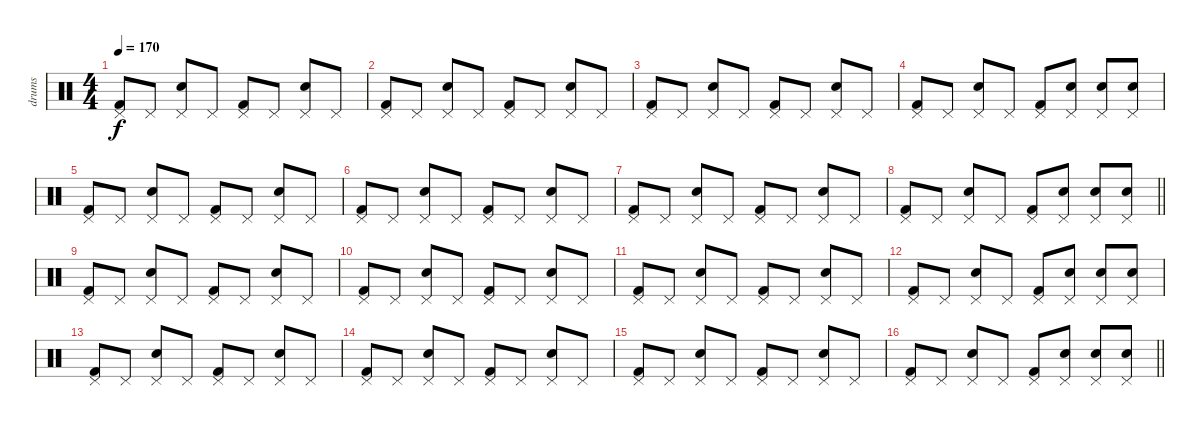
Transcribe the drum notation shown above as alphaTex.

\track ("drums" "drums") {instrument percussion}
\staff {score}
\articulation defaults
\ts (4 4)
\tempo 170
\clef neutral
\ks c
("Kick (hit) 2" "Pedal Hi-Hat (hit)").8{dy f} "Pedal Hi-Hat (hit)".8 ("Electric Snare (hit)" "Pedal Hi-Hat (hit)").8 "Pedal Hi-Hat (hit)".8 ("Kick (hit) 2" "Pedal Hi-Hat (hit)").8 "Pedal Hi-Hat (hit)".8 ("Electric Snare (hit)" "Pedal Hi-Hat (hit)").8 "Pedal Hi-Hat (hit)".8 |
("Kick (hit) 2" "Pedal Hi-Hat (hit)").8 "Pedal Hi-Hat (hit)".8 ("Electric Snare (hit)" "Pedal Hi-Hat (hit)").8 "Pedal Hi-Hat (hit)".8 ("Kick (hit) 2" "Pedal Hi-Hat (hit)").8 "Pedal Hi-Hat (hit)".8 ("Electric Snare (hit)" "Pedal Hi-Hat (hit)").8 "Pedal Hi-Hat (hit)".8 |
("Kick (hit) 2" "Pedal Hi-Hat (hit)").8 "Pedal Hi-Hat (hit)".8 ("Electric Snare (hit)" "Pedal Hi-Hat (hit)").8 "Pedal Hi-Hat (hit)".8 ("Kick (hit) 2" "Pedal Hi-Hat (hit)").8 "Pedal Hi-Hat (hit)".8 ("Electric Snare (hit)" "Pedal Hi-Hat (hit)").8 "Pedal Hi-Hat (hit)".8 |
("Kick (hit) 2" "Pedal Hi-Hat (hit)").8 "Pedal Hi-Hat (hit)".8 ("Electric Snare (hit)" "Pedal Hi-Hat (hit)").8 "Pedal Hi-Hat (hit)".8 ("Kick (hit) 2" "Pedal Hi-Hat (hit)").8 ("Electric Snare (hit)" "Pedal Hi-Hat (hit)").8 ("Electric Snare (hit)" "Pedal Hi-Hat (hit)").8 ("Electric Snare (hit)" "Pedal Hi-Hat (hit)").8 |
("Kick (hit) 2" "Pedal Hi-Hat (hit)").8 "Pedal Hi-Hat (hit)".8 ("Electric Snare (hit)" "Pedal Hi-Hat (hit)").8 "Pedal Hi-Hat (hit)".8 ("Kick (hit) 2" "Pedal Hi-Hat (hit)").8 "Pedal Hi-Hat (hit)".8 ("Electric Snare (hit)" "Pedal Hi-Hat (hit)").8 "Pedal Hi-Hat (hit)".8 |
("Kick (hit) 2" "Pedal Hi-Hat (hit)").8 "Pedal Hi-Hat (hit)".8 ("Electric Snare (hit)" "Pedal Hi-Hat (hit)").8 "Pedal Hi-Hat (hit)".8 ("Kick (hit) 2" "Pedal Hi-Hat (hit)").8 "Pedal Hi-Hat (hit)".8 ("Electric Snare (hit)" "Pedal Hi-Hat (hit)").8 "Pedal Hi-Hat (hit)".8 |
("Kick (hit) 2" "Pedal Hi-Hat (hit)").8 "Pedal Hi-Hat (hit)".8 ("Electric Snare (hit)" "Pedal Hi-Hat (hit)").8 "Pedal Hi-Hat (hit)".8 ("Kick (hit) 2" "Pedal Hi-Hat (hit)").8 "Pedal Hi-Hat (hit)".8 ("Electric Snare (hit)" "Pedal Hi-Hat (hit)").8 "Pedal Hi-Hat (hit)".8 |
\barLineRight lightlight
("Kick (hit) 2" "Pedal Hi-Hat (hit)").8 "Pedal Hi-Hat (hit)".8 ("Electric Snare (hit)" "Pedal Hi-Hat (hit)").8 "Pedal Hi-Hat (hit)".8 ("Kick (hit) 2" "Pedal Hi-Hat (hit)").8 ("Electric Snare (hit)" "Pedal Hi-Hat (hit)").8 ("Electric Snare (hit)" "Pedal Hi-Hat (hit)").8 ("Electric Snare (hit)" "Pedal Hi-Hat (hit)").8 |
("Kick (hit) 2" "Pedal Hi-Hat (hit)").8 "Pedal Hi-Hat (hit)".8 ("Electric Snare (hit)" "Pedal Hi-Hat (hit)").8 "Pedal Hi-Hat (hit)".8 ("Kick (hit) 2" "Pedal Hi-Hat (hit)").8 "Pedal Hi-Hat (hit)".8 ("Electric Snare (hit)" "Pedal Hi-Hat (hit)").8 "Pedal Hi-Hat (hit)".8 |
("Kick (hit) 2" "Pedal Hi-Hat (hit)").8 "Pedal Hi-Hat (hit)".8 ("Electric Snare (hit)" "Pedal Hi-Hat (hit)").8 "Pedal Hi-Hat (hit)".8 ("Kick (hit) 2" "Pedal Hi-Hat (hit)").8 "Pedal Hi-Hat (hit)".8 ("Electric Snare (hit)" "Pedal Hi-Hat (hit)").8 "Pedal Hi-Hat (hit)".8 |
("Kick (hit) 2" "Pedal Hi-Hat (hit)").8 "Pedal Hi-Hat (hit)".8 ("Electric Snare (hit)" "Pedal Hi-Hat (hit)").8 "Pedal Hi-Hat (hit)".8 ("Kick (hit) 2" "Pedal Hi-Hat (hit)").8 "Pedal Hi-Hat (hit)".8 ("Electric Snare (hit)" "Pedal Hi-Hat (hit)").8 "Pedal Hi-Hat (hit)".8 |
("Kick (hit) 2" "Pedal Hi-Hat (hit)").8 "Pedal Hi-Hat (hit)".8 ("Electric Snare (hit)" "Pedal Hi-Hat (hit)").8 "Pedal Hi-Hat (hit)".8 ("Kick (hit) 2" "Pedal Hi-Hat (hit)").8 ("Electric Snare (hit)" "Pedal Hi-Hat (hit)").8 ("Electric Snare (hit)" "Pedal Hi-Hat (hit)").8 ("Electric Snare (hit)" "Pedal Hi-Hat (hit)").8 |
("Kick (hit) 2" "Pedal Hi-Hat (hit)").8 "Pedal Hi-Hat (hit)".8 ("Electric Snare (hit)" "Pedal Hi-Hat (hit)").8 "Pedal Hi-Hat (hit)".8 ("Kick (hit) 2" "Pedal Hi-Hat (hit)").8 "Pedal Hi-Hat (hit)".8 ("Electric Snare (hit)" "Pedal Hi-Hat (hit)").8 "Pedal Hi-Hat (hit)".8 |
("Kick (hit) 2" "Pedal Hi-Hat (hit)").8 "Pedal Hi-Hat (hit)".8 ("Electric Snare (hit)" "Pedal Hi-Hat (hit)").8 "Pedal Hi-Hat (hit)".8 ("Kick (hit) 2" "Pedal Hi-Hat (hit)").8 "Pedal Hi-Hat (hit)".8 ("Electric Snare (hit)" "Pedal Hi-Hat (hit)").8 "Pedal Hi-Hat (hit)".8 |
("Kick (hit) 2" "Pedal Hi-Hat (hit)").8 "Pedal Hi-Hat (hit)".8 ("Electric Snare (hit)" "Pedal Hi-Hat (hit)").8 "Pedal Hi-Hat (hit)".8 ("Kick (hit) 2" "Pedal Hi-Hat (hit)").8 "Pedal Hi-Hat (hit)".8 ("Electric Snare (hit)" "Pedal Hi-Hat (hit)").8 "Pedal Hi-Hat (hit)".8 |
\barLineRight lightlight
("Kick (hit) 2" "Pedal Hi-Hat (hit)").8 "Pedal Hi-Hat (hit)".8 ("Electric Snare (hit)" "Pedal Hi-Hat (hit)").8 "Pedal Hi-Hat (hit)".8 ("Kick (hit) 2" "Pedal Hi-Hat (hit)").8 ("Electric Snare (hit)" "Pedal Hi-Hat (hit)").8 ("Electric Snare (hit)" "Pedal Hi-Hat (hit)").8 ("Electric Snare (hit)" "Pedal Hi-Hat (hit)").8
